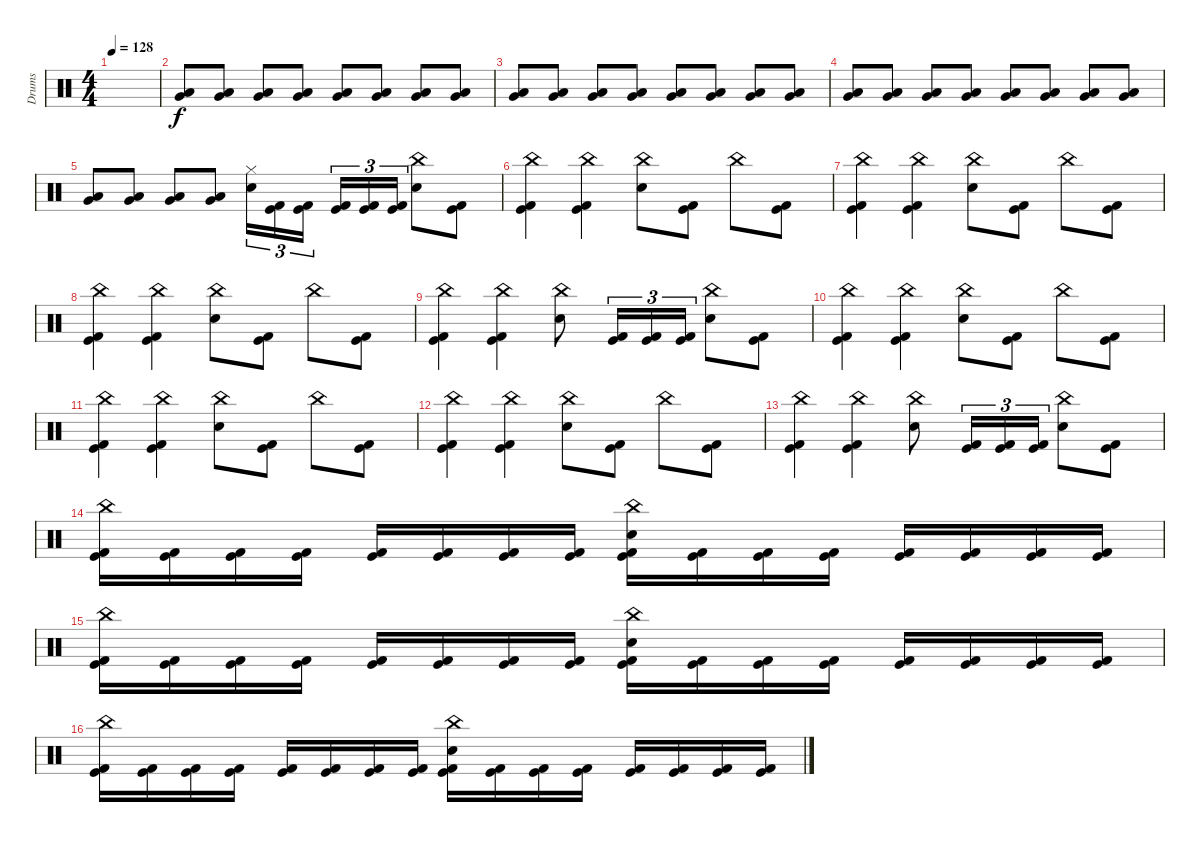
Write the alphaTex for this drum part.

\track ("Drums" "Drums") {instrument percussion}
\staff {score}
\articulation defaults
\ts (4 4)
\tempo 128
\clef neutral
\ks c
|
("Very Low Tom (hit)" "Low Tom (hit)").8{volume 13} ("Very Low Tom (hit)" "Low Tom (hit)").8 ("Very Low Tom (hit)" "Low Tom (hit)").8 ("Very Low Tom (hit)" "Low Tom (hit)").8 ("Very Low Tom (hit)" "Low Tom (hit)").8 ("Very Low Tom (hit)" "Low Tom (hit)").8 ("Very Low Tom (hit)" "Low Tom (hit)").8 ("Very Low Tom (hit)" "Low Tom (hit)").8 |
("Very Low Tom (hit)" "Low Tom (hit)").8 ("Very Low Tom (hit)" "Low Tom (hit)").8 ("Very Low Tom (hit)" "Low Tom (hit)").8 ("Very Low Tom (hit)" "Low Tom (hit)").8 ("Very Low Tom (hit)" "Low Tom (hit)").8 ("Very Low Tom (hit)" "Low Tom (hit)").8 ("Very Low Tom (hit)" "Low Tom (hit)").8 ("Very Low Tom (hit)" "Low Tom (hit)").8 |
("Very Low Tom (hit)" "Low Tom (hit)").8 ("Very Low Tom (hit)" "Low Tom (hit)").8 ("Very Low Tom (hit)" "Low Tom (hit)").8 ("Very Low Tom (hit)" "Low Tom (hit)").8 ("Very Low Tom (hit)" "Low Tom (hit)").8 ("Very Low Tom (hit)" "Low Tom (hit)").8 ("Very Low Tom (hit)" "Low Tom (hit)").8 ("Very Low Tom (hit)" "Low Tom (hit)").8 |
("Very Low Tom (hit)" "Low Tom (hit)").8 ("Very Low Tom (hit)" "Low Tom (hit)").8 ("Very Low Tom (hit)" "Low Tom (hit)").8 ("Very Low Tom (hit)" "Low Tom (hit)").8 ("Hi-Hat (closed)" "Electric Snare (hit)").16{tu (3 2)} ("Kick (hit)" "Kick (hit) 2").16{tu (3 2)} ("Kick (hit)" "Kick (hit) 2").16{tu (3 2)} ("Kick (hit)" "Kick (hit) 2").16{tu (3 2)} ("Kick (hit)" "Kick (hit) 2").16{tu (3 2)} ("Kick (hit)" "Kick (hit) 2").16{tu (3 2)} ("China (hit)" "Electric Snare (hit)").8 ("Kick (hit)" "Kick (hit) 2").8 |
("China (hit)" "Kick (hit)" "Kick (hit) 2").4 ("China (hit)" "Kick (hit)" "Kick (hit) 2").4 ("China (hit)" "Electric Snare (hit)").8 ("Kick (hit)" "Kick (hit) 2").8 "China (hit)".8 ("Kick (hit)" "Kick (hit) 2").8 |
("China (hit)" "Kick (hit)" "Kick (hit) 2").4 ("China (hit)" "Kick (hit)" "Kick (hit) 2").4 ("China (hit)" "Electric Snare (hit)").8 ("Kick (hit)" "Kick (hit) 2").8 "China (hit)".8 ("Kick (hit)" "Kick (hit) 2").8 |
("China (hit)" "Kick (hit)" "Kick (hit) 2").4 ("China (hit)" "Kick (hit)" "Kick (hit) 2").4 ("China (hit)" "Electric Snare (hit)").8 ("Kick (hit)" "Kick (hit) 2").8 "China (hit)".8 ("Kick (hit)" "Kick (hit) 2").8 |
("China (hit)" "Kick (hit)" "Kick (hit) 2").4 ("China (hit)" "Kick (hit)" "Kick (hit) 2").4 ("China (hit)" "Electric Snare (hit)").8 ("Kick (hit)" "Kick (hit) 2").16{tu (3 2)} ("Kick (hit)" "Kick (hit) 2").16{tu (3 2)} ("Kick (hit)" "Kick (hit) 2").16{tu (3 2)} ("China (hit)" "Electric Snare (hit)").8 ("Kick (hit)" "Kick (hit) 2").8 |
("China (hit)" "Kick (hit)" "Kick (hit) 2").4 ("China (hit)" "Kick (hit)" "Kick (hit) 2").4 ("China (hit)" "Electric Snare (hit)").8 ("Kick (hit)" "Kick (hit) 2").8 "China (hit)".8 ("Kick (hit)" "Kick (hit) 2").8 |
("China (hit)" "Kick (hit)" "Kick (hit) 2").4 ("China (hit)" "Kick (hit)" "Kick (hit) 2").4 ("China (hit)" "Electric Snare (hit)").8 ("Kick (hit)" "Kick (hit) 2").8 "China (hit)".8 ("Kick (hit)" "Kick (hit) 2").8 |
("China (hit)" "Kick (hit)" "Kick (hit) 2").4 ("China (hit)" "Kick (hit)" "Kick (hit) 2").4 ("China (hit)" "Electric Snare (hit)").8 ("Kick (hit)" "Kick (hit) 2").8 "China (hit)".8 ("Kick (hit)" "Kick (hit) 2").8 |
("China (hit)" "Kick (hit)" "Kick (hit) 2").4 ("China (hit)" "Kick (hit)" "Kick (hit) 2").4 ("China (hit)" "Electric Snare (hit)").8 ("Kick (hit)" "Kick (hit) 2").16{tu (3 2)} ("Kick (hit)" "Kick (hit) 2").16{tu (3 2)} ("Kick (hit)" "Kick (hit) 2").16{tu (3 2)} ("China (hit)" "Electric Snare (hit)").8 ("Kick (hit)" "Kick (hit) 2").8 |
("China (hit)" "Kick (hit)" "Kick (hit) 2").16 ("Kick (hit)" "Kick (hit) 2").16 ("Kick (hit)" "Kick (hit) 2").16 ("Kick (hit)" "Kick (hit) 2").16 ("Kick (hit)" "Kick (hit) 2").16 ("Kick (hit)" "Kick (hit) 2").16 ("Kick (hit)" "Kick (hit) 2").16 ("Kick (hit)" "Kick (hit) 2").16 ("China (hit)" "Electric Snare (hit)" "Kick (hit)" "Kick (hit) 2").16 ("Kick (hit)" "Kick (hit) 2").16 ("Kick (hit)" "Kick (hit) 2").16 ("Kick (hit)" "Kick (hit) 2").16 ("Kick (hit)" "Kick (hit) 2").16 ("Kick (hit)" "Kick (hit) 2").16 ("Kick (hit)" "Kick (hit) 2").16 ("Kick (hit)" "Kick (hit) 2").16 |
("China (hit)" "Kick (hit)" "Kick (hit) 2").16 ("Kick (hit)" "Kick (hit) 2").16 ("Kick (hit)" "Kick (hit) 2").16 ("Kick (hit)" "Kick (hit) 2").16 ("Kick (hit)" "Kick (hit) 2").16 ("Kick (hit)" "Kick (hit) 2").16 ("Kick (hit)" "Kick (hit) 2").16 ("Kick (hit)" "Kick (hit) 2").16 ("China (hit)" "Electric Snare (hit)" "Kick (hit)" "Kick (hit) 2").16 ("Kick (hit)" "Kick (hit) 2").16 ("Kick (hit)" "Kick (hit) 2").16 ("Kick (hit)" "Kick (hit) 2").16 ("Kick (hit)" "Kick (hit) 2").16 ("Kick (hit)" "Kick (hit) 2").16 ("Kick (hit)" "Kick (hit) 2").16 ("Kick (hit)" "Kick (hit) 2").16 |
("China (hit)" "Kick (hit)" "Kick (hit) 2").16 ("Kick (hit)" "Kick (hit) 2").16 ("Kick (hit)" "Kick (hit) 2").16 ("Kick (hit)" "Kick (hit) 2").16 ("Kick (hit)" "Kick (hit) 2").16 ("Kick (hit)" "Kick (hit) 2").16 ("Kick (hit)" "Kick (hit) 2").16 ("Kick (hit)" "Kick (hit) 2").16 ("China (hit)" "Electric Snare (hit)" "Kick (hit)" "Kick (hit) 2").16 ("Kick (hit)" "Kick (hit) 2").16 ("Kick (hit)" "Kick (hit) 2").16 ("Kick (hit)" "Kick (hit) 2").16 ("Kick (hit)" "Kick (hit) 2").16 ("Kick (hit)" "Kick (hit) 2").16 ("Kick (hit)" "Kick (hit) 2").16 ("Kick (hit)" "Kick (hit) 2").16
